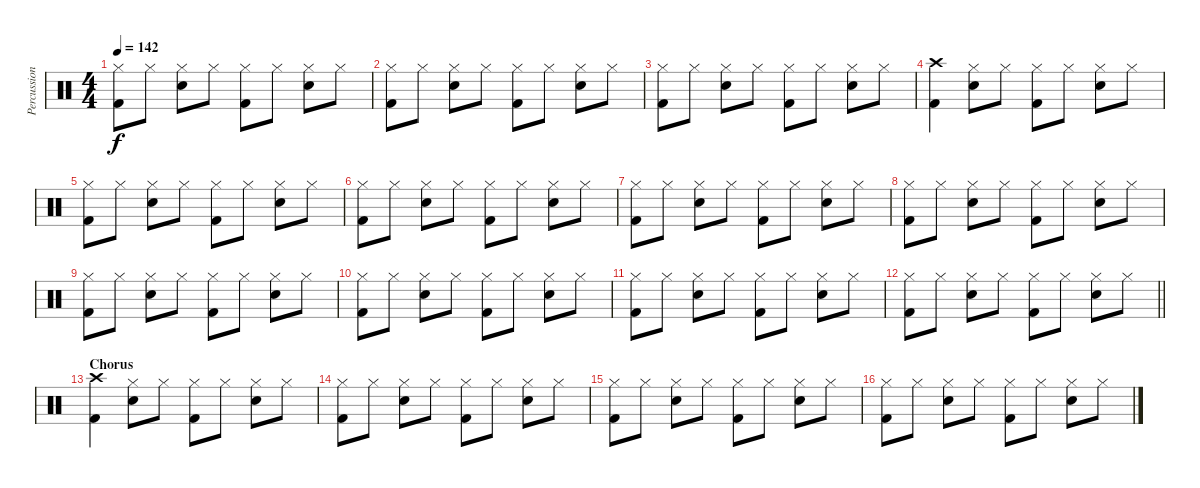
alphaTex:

\track ("Percussion" "Percussion") {instrument percussion}
\staff {score}
\articulation defaults
\ts (4 4)
\tempo 142
\clef neutral
\ks c
("Hi-Hat (closed)" "Kick (hit) 2").8{dy f} "Hi-Hat (closed)".8 ("Hi-Hat (closed)" "Snare (hit) 2").8 "Hi-Hat (closed)".8 ("Hi-Hat (closed)" "Kick (hit) 2").8 "Hi-Hat (closed)".8 ("Hi-Hat (closed)" "Snare (hit) 2").8 "Hi-Hat (closed)".8 |
("Hi-Hat (closed)" "Kick (hit) 2").8 "Hi-Hat (closed)".8 ("Hi-Hat (closed)" "Snare (hit) 2").8 "Hi-Hat (closed)".8 ("Hi-Hat (closed)" "Kick (hit) 2").8 "Hi-Hat (closed)".8 ("Hi-Hat (closed)" "Snare (hit) 2").8 "Hi-Hat (closed)".8 |
("Hi-Hat (closed)" "Kick (hit) 2").8 "Hi-Hat (closed)".8 ("Hi-Hat (closed)" "Snare (hit) 2").8 "Hi-Hat (closed)".8 ("Hi-Hat (closed)" "Kick (hit) 2").8 "Hi-Hat (closed)".8 ("Hi-Hat (closed)" "Snare (hit) 2").8 "Hi-Hat (closed)".8 |
("Crash high (hit)" "Kick (hit) 2").4 ("Hi-Hat (closed)" "Snare (hit) 2").8 "Hi-Hat (closed)".8 ("Hi-Hat (closed)" "Kick (hit) 2").8 "Hi-Hat (closed)".8 ("Hi-Hat (closed)" "Snare (hit) 2").8 "Hi-Hat (closed)".8 |
("Hi-Hat (closed)" "Kick (hit) 2").8 "Hi-Hat (closed)".8 ("Hi-Hat (closed)" "Snare (hit) 2").8 "Hi-Hat (closed)".8 ("Hi-Hat (closed)" "Kick (hit) 2").8 "Hi-Hat (closed)".8 ("Hi-Hat (closed)" "Snare (hit) 2").8 "Hi-Hat (closed)".8 |
("Hi-Hat (closed)" "Kick (hit) 2").8 "Hi-Hat (closed)".8 ("Hi-Hat (closed)" "Snare (hit) 2").8 "Hi-Hat (closed)".8 ("Hi-Hat (closed)" "Kick (hit) 2").8 "Hi-Hat (closed)".8 ("Hi-Hat (closed)" "Snare (hit) 2").8 "Hi-Hat (closed)".8 |
("Hi-Hat (closed)" "Kick (hit) 2").8 "Hi-Hat (closed)".8 ("Hi-Hat (closed)" "Snare (hit) 2").8 "Hi-Hat (closed)".8 ("Hi-Hat (closed)" "Kick (hit) 2").8 "Hi-Hat (closed)".8 ("Hi-Hat (closed)" "Snare (hit) 2").8 "Hi-Hat (closed)".8 |
("Hi-Hat (closed)" "Kick (hit) 2").8 "Hi-Hat (closed)".8 ("Hi-Hat (closed)" "Snare (hit) 2").8 "Hi-Hat (closed)".8 ("Hi-Hat (closed)" "Kick (hit) 2").8 "Hi-Hat (closed)".8 ("Hi-Hat (closed)" "Snare (hit) 2").8 "Hi-Hat (closed)".8 |
("Hi-Hat (closed)" "Kick (hit) 2").8 "Hi-Hat (closed)".8 ("Hi-Hat (closed)" "Snare (hit) 2").8 "Hi-Hat (closed)".8 ("Hi-Hat (closed)" "Kick (hit) 2").8 "Hi-Hat (closed)".8 ("Hi-Hat (closed)" "Snare (hit) 2").8 "Hi-Hat (closed)".8 |
("Hi-Hat (closed)" "Kick (hit) 2").8 "Hi-Hat (closed)".8 ("Hi-Hat (closed)" "Snare (hit) 2").8 "Hi-Hat (closed)".8 ("Hi-Hat (closed)" "Kick (hit) 2").8 "Hi-Hat (closed)".8 ("Hi-Hat (closed)" "Snare (hit) 2").8 "Hi-Hat (closed)".8 |
("Hi-Hat (closed)" "Kick (hit) 2").8 "Hi-Hat (closed)".8 ("Hi-Hat (closed)" "Snare (hit) 2").8 "Hi-Hat (closed)".8 ("Hi-Hat (closed)" "Kick (hit) 2").8 "Hi-Hat (closed)".8 ("Hi-Hat (closed)" "Snare (hit) 2").8 "Hi-Hat (closed)".8 |
\barLineRight lightlight
("Hi-Hat (closed)" "Kick (hit) 2").8 "Hi-Hat (closed)".8 ("Hi-Hat (closed)" "Snare (hit) 2").8 "Hi-Hat (closed)".8 ("Hi-Hat (closed)" "Kick (hit) 2").8 "Hi-Hat (closed)".8 ("Hi-Hat (closed)" "Snare (hit) 2").8 "Hi-Hat (closed)".8 |
\section ("" "Chorus")
("Crash high (hit)" "Kick (hit) 2").4 ("Hi-Hat (closed)" "Snare (hit) 2").8 "Hi-Hat (closed)".8 ("Hi-Hat (closed)" "Kick (hit) 2").8 "Hi-Hat (closed)".8 ("Hi-Hat (closed)" "Snare (hit) 2").8 "Hi-Hat (closed)".8 |
("Hi-Hat (closed)" "Kick (hit) 2").8 "Hi-Hat (closed)".8 ("Hi-Hat (closed)" "Snare (hit) 2").8 "Hi-Hat (closed)".8 ("Hi-Hat (closed)" "Kick (hit) 2").8 "Hi-Hat (closed)".8 ("Hi-Hat (closed)" "Snare (hit) 2").8 "Hi-Hat (closed)".8 |
("Hi-Hat (closed)" "Kick (hit) 2").8 "Hi-Hat (closed)".8 ("Hi-Hat (closed)" "Snare (hit) 2").8 "Hi-Hat (closed)".8 ("Hi-Hat (closed)" "Kick (hit) 2").8 "Hi-Hat (closed)".8 ("Hi-Hat (closed)" "Snare (hit) 2").8 "Hi-Hat (closed)".8 |
("Hi-Hat (closed)" "Kick (hit) 2").8 "Hi-Hat (closed)".8 ("Hi-Hat (closed)" "Snare (hit) 2").8 "Hi-Hat (closed)".8 ("Hi-Hat (closed)" "Kick (hit) 2").8 "Hi-Hat (closed)".8 ("Hi-Hat (closed)" "Snare (hit) 2").8 "Hi-Hat (closed)".8
